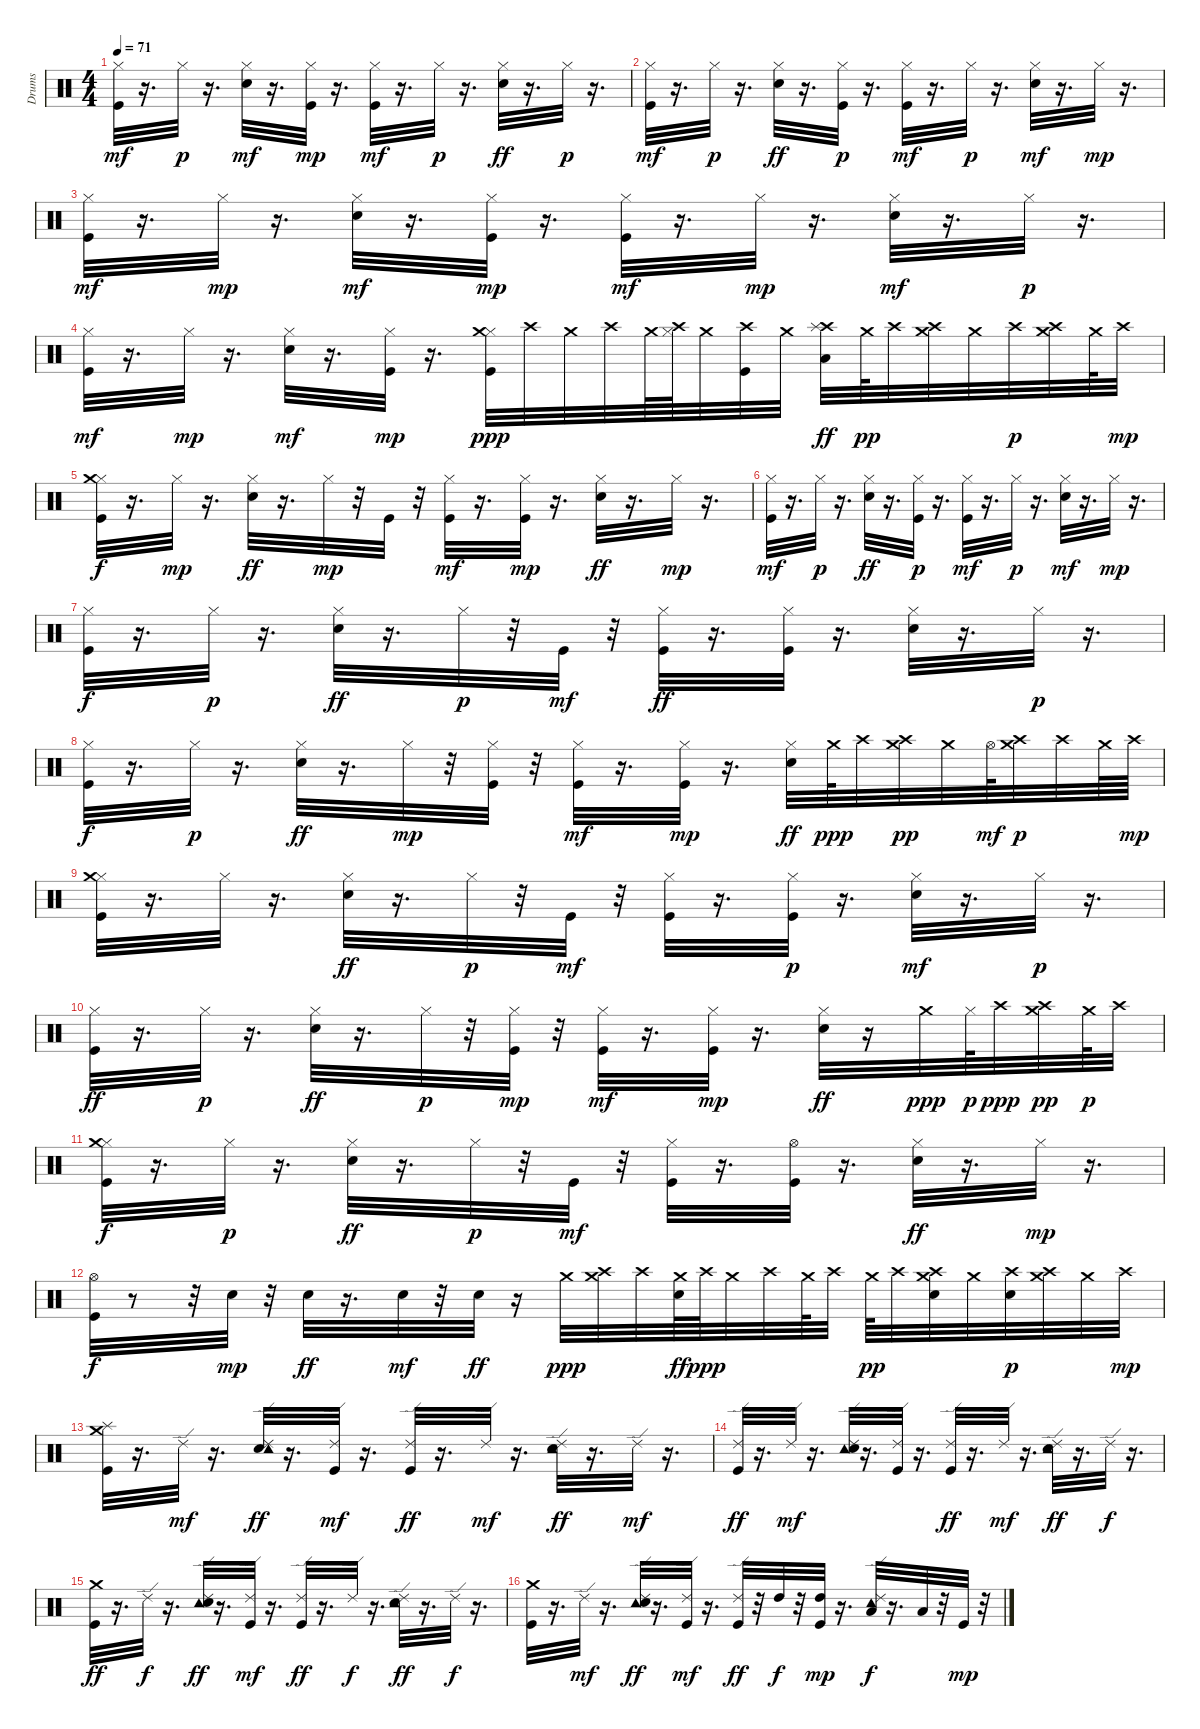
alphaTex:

\track ("Drums" "Drums") {instrument percussion}
\staff {score}
\articulation defaults
\ts (4 4)
\tempo 71
\clef neutral
\ks c
("Hi-Hat (closed)" "Kick (hit)").32{dy mf} r.16{d} "Hi-Hat (closed)".32{dy p} r.16{d} ("Hi-Hat (closed)" "Snare (hit) 2").32{dy mf} r.16{d} ("Kick (hit)" "Hi-Hat (closed)").32{dy mp} r.16{d} ("Kick (hit)" "Hi-Hat (closed)").32{dy mf} r.16{d} "Hi-Hat (closed)".32{dy p} r.16{d} ("Hi-Hat (closed)" "Snare (hit) 2").32{dy ff} r.16{d} "Hi-Hat (closed)".32{dy p} r.16{d} |
("Kick (hit)" "Hi-Hat (closed)").32{dy mf} r.16{d} "Hi-Hat (closed)".32{dy p} r.16{d} ("Hi-Hat (closed)" "Snare (hit) 2").32{dy ff} r.16{d} ("Kick (hit)" "Hi-Hat (closed)").32{dy p} r.16{d} ("Kick (hit)" "Hi-Hat (closed)").32{dy mf} r.16{d} "Hi-Hat (closed)".32{dy p} r.16{d} ("Hi-Hat (closed)" "Snare (hit) 2").32{dy mf} r.16{d} "Hi-Hat (closed)".32{dy mp} r.16{d} |
("Kick (hit)" "Hi-Hat (closed)").32{dy mf} r.16{d} "Hi-Hat (closed)".32{dy mp} r.16{d} ("Hi-Hat (closed)" "Snare (hit) 2").32{dy mf} r.16{d} ("Kick (hit)" "Hi-Hat (closed)").32{dy mp} r.16{d} ("Kick (hit)" "Hi-Hat (closed)").32{dy mf} r.16{d} "Hi-Hat (closed)".32{dy mp} r.16{d} ("Snare (hit) 2" "Hi-Hat (closed)").32{dy mf} r.16{d} "Hi-Hat (closed)".32{dy p} r.16{d} |
("Kick (hit)" "Hi-Hat (closed)").32{dy mf} r.16{d} "Hi-Hat (closed)".32{dy mp} r.16{d} ("Snare (hit) 2" "Hi-Hat (closed)").32{dy mf} r.16{d} ("Kick (hit)" "Hi-Hat (closed)").32{dy mp} r.16{d} ("Kick (hit)" "Hi-Hat (closed)" "Crash medium (hit)").32{dy ppp} "Crash high (hit)".32 "Crash medium (hit)".32 "Crash high (hit)".32 "Crash medium (hit)".64 ("Hi-Hat (closed)" "Crash high (hit)").64 "Crash medium (hit)".32 ("Kick (hit)" "Crash high (hit)").32 "Crash medium (hit)".32 ("Crash high (hit)" "Low Tom (hit)" "Splash (hit)").32{dy ff} "Crash medium (hit)".64{dy pp} "Crash high (hit)".32 ("Crash medium (hit)" "Crash high (hit)").32 "Crash medium (hit)".32 "Crash high (hit)".32{dy p} ("Crash medium (hit)" "Crash high (hit)").32 "Crash medium (hit)".64 "Crash high (hit)".32{dy mp} |
("Kick (hit)" "Hi-Hat (closed)" "Crash medium (hit)").32{dy f} r.16{d} "Hi-Hat (closed)".32{dy mp} r.16{d} ("Hi-Hat (closed)" "Snare (hit) 2").32{dy ff} r.16{d} "Hi-Hat (closed)".32{dy mp} r.32 "Kick (hit)".32 r.32 ("Kick (hit)" "Hi-Hat (closed)").32{dy mf} r.16{d} ("Kick (hit)" "Hi-Hat (closed)").32{dy mp} r.16{d} ("Hi-Hat (closed)" "Snare (hit) 2").32{dy ff} r.16{d} "Hi-Hat (closed)".32{dy mp} r.16{d} |
("Kick (hit)" "Hi-Hat (closed)").32{dy mf} r.16{d} "Hi-Hat (closed)".32{dy p} r.16{d} ("Hi-Hat (closed)" "Snare (hit) 2").32{dy ff} r.16{d} ("Kick (hit)" "Hi-Hat (closed)").32{dy p} r.16{d} ("Kick (hit)" "Hi-Hat (closed)").32{dy mf} r.16{d} "Hi-Hat (closed)".32{dy p} r.16{d} ("Hi-Hat (closed)" "Snare (hit) 2").32{dy mf} r.16{d} "Hi-Hat (closed)".32{dy mp} r.16{d} |
("Kick (hit)" "Hi-Hat (closed)").32{dy f} r.16{d} "Hi-Hat (closed)".32{dy p} r.16{d} ("Hi-Hat (closed)" "Snare (hit) 2").32{dy ff} r.16{d} "Hi-Hat (closed)".32{dy p} r.32 "Kick (hit)".32{dy mf} r.32 ("Hi-Hat (closed)" "Kick (hit)").32{dy ff} r.16{d} ("Hi-Hat (closed)" "Kick (hit)").32 r.16{d} ("Hi-Hat (closed)" "Snare (hit) 2").32 r.16{d} "Hi-Hat (closed)".32{dy p} r.16{d} |
("Kick (hit)" "Hi-Hat (closed)").32{dy f} r.16{d} "Hi-Hat (closed)".32{dy p} r.16{d} ("Hi-Hat (closed)" "Snare (hit) 2").32{dy ff} r.16{d} "Hi-Hat (closed)".32{dy mp} r.32 ("Kick (hit)" "Hi-Hat (closed)").32 r.32 ("Kick (hit)" "Hi-Hat (closed)").32{dy mf} r.16{d} ("Kick (hit)" "Hi-Hat (closed)").32{dy mp} r.16{d} ("Hi-Hat (closed)" "Snare (hit) 2").32{dy ff} "Crash medium (hit)".64{dy ppp} "Crash high (hit)".32 ("Crash medium (hit)" "Crash high (hit)").32{dy pp} "Crash medium (hit)".32 "Hi-Hat (open)".64{dy mf} ("Crash high (hit)" "Crash medium (hit)").32{dy p} "Crash high (hit)".32 "Crash medium (hit)".64 "Crash high (hit)".64{dy mp} |
("Kick (hit)" "Hi-Hat (closed)" "Crash medium (hit)").32 r.16{d} "Hi-Hat (closed)".32 r.16{d} ("Hi-Hat (closed)" "Snare (hit) 2").32{dy ff} r.16{d} "Hi-Hat (closed)".32{dy p} r.32 "Kick (hit)".32{dy mf} r.32 ("Kick (hit)" "Hi-Hat (closed)").32 r.16{d} ("Kick (hit)" "Hi-Hat (closed)").32{dy p} r.16{d} ("Snare (hit) 2" "Hi-Hat (closed)").32{dy mf} r.16{d} "Hi-Hat (closed)".32{dy p} r.16{d} |
("Hi-Hat (closed)" "Kick (hit)").32{dy ff} r.16{d} "Hi-Hat (closed)".32{dy p} r.16{d} ("Hi-Hat (closed)" "Snare (hit) 2").32{dy ff} r.16{d} "Hi-Hat (closed)".32{dy p} r.32 ("Kick (hit)" "Hi-Hat (closed)").32{dy mp} r.32 ("Kick (hit)" "Hi-Hat (closed)").32{dy mf} r.16{d} ("Kick (hit)" "Hi-Hat (closed)").32{dy mp} r.16{d} ("Hi-Hat (closed)" "Snare (hit) 2").32{dy ff} r.16 "Crash medium (hit)".32{dy ppp} "Hi-Hat (closed)".64{dy p} "Crash high (hit)".32{dy ppp} ("Crash medium (hit)" "Crash high (hit)").32{dy pp} "Crash medium (hit)".64{dy p} "Crash high (hit)".32 |
("Kick (hit)" "Hi-Hat (closed)" "Crash medium (hit)").32{dy f} r.16{d} "Hi-Hat (closed)".32{dy p} r.16{d} ("Hi-Hat (closed)" "Snare (hit) 2").32{dy ff} r.16{d} "Hi-Hat (closed)".32{dy p} r.32 "Kick (hit)".32{dy mf} r.32 ("Kick (hit)" "Hi-Hat (closed)").32 r.16{d} ("Kick (hit)" "Hi-Hat (open)").32 r.16{d} ("Hi-Hat (closed)" "Snare (hit) 2").32{dy ff} r.16{d} "Hi-Hat (closed)".32{dy mp} r.16{d} |
("Kick (hit)" "Hi-Hat (open)").32{dy f} r.8 r.32 "Snare (hit) 2".32{dy mp} r.32 "Snare (hit) 2".32{dy ff} r.16{d} "Snare (hit) 2".32{dy mf} r.32 "Snare (hit) 2".32{dy ff} r.16 "Crash medium (hit)".32{dy ppp} ("Crash high (hit)" "Crash medium (hit)").32 "Crash high (hit)".32 ("Crash medium (hit)" "Snare (hit) 2").64{dy ff} "Crash high (hit)".64{dy ppp} "Crash medium (hit)".32 "Crash high (hit)".32 "Crash medium (hit)".64 "Crash high (hit)".32 "Crash medium (hit)".64{dy pp} "Crash high (hit)".32 ("Crash medium (hit)" "Snare (hit) 2" "Crash high (hit)").32 "Crash medium (hit)".32 ("Snare (hit) 2" "Crash high (hit)").32{dy p} ("Crash medium (hit)" "Crash high (hit)").32 "Crash medium (hit)".32 "Crash high (hit)".32{dy mp} |
("Kick (hit)" "Splash (hit)" "Crash medium (hit)").32 r.16{d} "Ride (edge) 2".32{dy mf} r.16{d} ("Ride (edge) 2" "Snare (hit) 2" "Tambourine (hit)").32{dy ff} r.16{d} ("Kick (hit)" "Ride (edge) 2").32{dy mf} r.16{d} ("Kick (hit)" "Ride (edge) 2").32{dy ff} r.16{d} "Ride (edge) 2".32{dy mf} r.16{d} ("Snare (hit) 2" "Tambourine (hit)" "Ride (edge) 2").32{dy ff} r.16{d} "Ride (edge) 2".32{dy mf} r.16{d} |
("Ride (edge) 2" "Kick (hit)").32{dy ff} r.16{d} "Ride (edge) 2".32{dy mf} r.16{d} ("Ride (edge) 2" "Tambourine (hit)" "Snare (hit) 2").32 r.16{d} ("Kick (hit)" "Ride (edge) 2").32 r.16{d} ("Kick (hit)" "Ride (edge) 2").32{dy ff} r.16{d} "Ride (edge) 2".32{dy mf} r.16{d} ("Tambourine (hit)" "Ride (edge) 2" "Snare (hit) 2").32{dy ff} r.16{d} "Ride (edge) 2".32{dy f} r.16{d} |
("Kick (hit)" "Crash medium (hit)").32{dy ff} r.16{d} "Ride (edge) 2".32{dy f} r.16{d} ("Tambourine (hit)" "Ride (edge) 2" "Snare (hit) 2").32{dy ff} r.16{d} ("Kick (hit)" "Ride (edge) 2").32{dy mf} r.16{d} ("Kick (hit)" "Ride (edge) 2").32{dy ff} r.16{d} "Ride (edge) 2".32{dy f} r.16{d} ("Ride (edge) 2" "Tambourine (hit)" "Snare (hit) 2").32{dy ff} r.16{d} "Ride (edge) 2".32{dy f} r.16{d} |
("Kick (hit)" "Crash medium (hit)").32 r.16{d} "Ride (edge) 2".32{dy mf} r.16{d} ("Ride (edge) 2" "Tambourine (hit)" "Snare (hit) 2").32{dy ff} r.16{d} ("Kick (hit)" "Ride (edge) 2").32{dy mf} r.16{d} ("Kick (hit)" "Ride (edge) 2").32{dy ff} r.32 "High Tom (hit)".32{dy f} r.32 ("Kick (hit)" "High Tom (hit)").32{dy mp} r.16{d} ("Ride (edge) 2" "Tambourine (hit)" "Low Tom (hit)").32{dy f} r.16{d} "Low Tom (hit)".32 r.32 "Kick (hit)".32{dy mp} r.32
